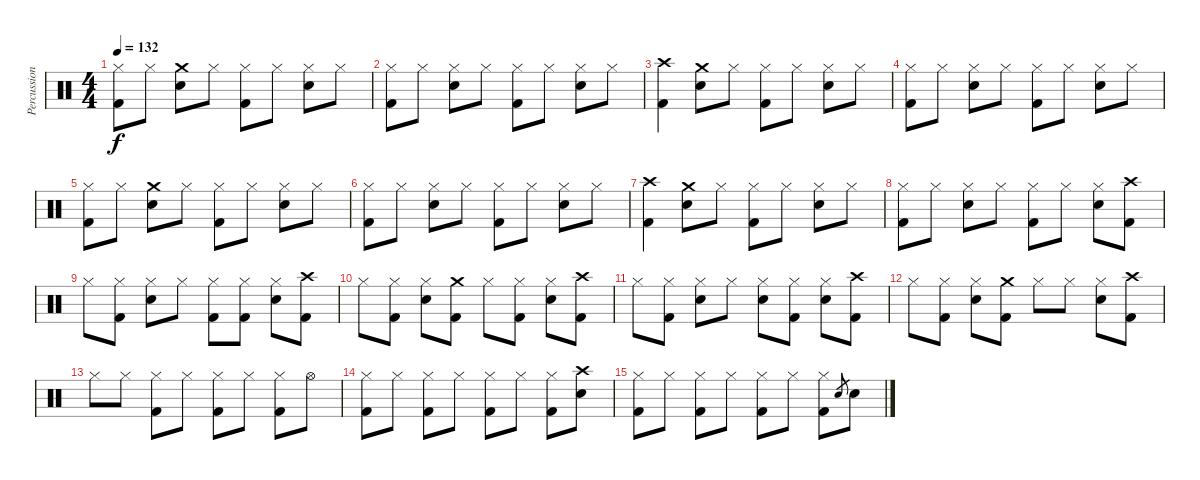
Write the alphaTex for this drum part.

\track ("Percussion" "Percussion") {instrument percussion}
\staff {score}
\articulation defaults
\ts (4 4)
\tempo 132
\clef neutral
\ks c
("Hi-Hat (closed)" "Kick (hit) 2").8{dy f} "Hi-Hat (closed)".8 ("Crash medium (hit)" "Snare (hit) 2").8 "Hi-Hat (closed)".8 ("Hi-Hat (closed)" "Kick (hit) 2").8 "Hi-Hat (closed)".8 ("Hi-Hat (closed)" "Snare (hit) 2").8 "Hi-Hat (closed)".8 |
("Hi-Hat (closed)" "Kick (hit) 2").8 "Hi-Hat (closed)".8 ("Hi-Hat (closed)" "Snare (hit) 2").8 "Hi-Hat (closed)".8 ("Hi-Hat (closed)" "Kick (hit) 2").8 "Hi-Hat (closed)".8 ("Hi-Hat (closed)" "Snare (hit) 2").8 "Hi-Hat (closed)".8 |
("Crash high (hit)" "Kick (hit) 2").4 ("Crash medium (hit)" "Snare (hit) 2").8 "Hi-Hat (closed)".8 ("Hi-Hat (closed)" "Kick (hit) 2").8 "Hi-Hat (closed)".8 ("Hi-Hat (closed)" "Snare (hit) 2").8 "Hi-Hat (closed)".8 |
("Hi-Hat (closed)" "Kick (hit) 2").8 "Hi-Hat (closed)".8 ("Hi-Hat (closed)" "Snare (hit) 2").8 "Hi-Hat (closed)".8 ("Hi-Hat (closed)" "Kick (hit) 2").8 "Hi-Hat (closed)".8 ("Hi-Hat (closed)" "Snare (hit) 2").8 "Hi-Hat (closed)".8 |
("Hi-Hat (closed)" "Kick (hit) 2").8 "Hi-Hat (closed)".8 ("Crash medium (hit)" "Snare (hit) 2").8 "Hi-Hat (closed)".8 ("Hi-Hat (closed)" "Kick (hit) 2").8 "Hi-Hat (closed)".8 ("Hi-Hat (closed)" "Snare (hit) 2").8 "Hi-Hat (closed)".8 |
("Hi-Hat (closed)" "Kick (hit) 2").8 "Hi-Hat (closed)".8 ("Hi-Hat (closed)" "Snare (hit) 2").8 "Hi-Hat (closed)".8 ("Hi-Hat (closed)" "Kick (hit) 2").8 "Hi-Hat (closed)".8 ("Hi-Hat (closed)" "Snare (hit) 2").8 "Hi-Hat (closed)".8 |
("Crash high (hit)" "Kick (hit) 2").4 ("Crash medium (hit)" "Snare (hit) 2").8 "Hi-Hat (closed)".8 ("Hi-Hat (closed)" "Kick (hit) 2").8 "Hi-Hat (closed)".8 ("Hi-Hat (closed)" "Snare (hit) 2").8 "Hi-Hat (closed)".8 |
("Hi-Hat (closed)" "Kick (hit) 2").8 "Hi-Hat (closed)".8 ("Hi-Hat (closed)" "Snare (hit) 2").8 "Hi-Hat (closed)".8 ("Hi-Hat (closed)" "Kick (hit) 2").8 "Hi-Hat (closed)".8 ("Hi-Hat (closed)" "Snare (hit) 2").8 ("Crash high (hit)" "Kick (hit) 2").8 |
"Hi-Hat (closed)".8 ("Hi-Hat (closed)" "Kick (hit) 2").8 ("Hi-Hat (closed)" "Snare (hit) 2").8 "Hi-Hat (closed)".8 ("Hi-Hat (closed)" "Kick (hit) 2").8 ("Hi-Hat (closed)" "Kick (hit) 2").8 ("Hi-Hat (closed)" "Snare (hit) 2").8 ("Crash high (hit)" "Kick (hit) 2").8 |
"Hi-Hat (closed)".8 ("Hi-Hat (closed)" "Kick (hit) 2").8 ("Hi-Hat (closed)" "Snare (hit) 2").8 ("Crash medium (hit)" "Kick (hit) 2").8 "Hi-Hat (closed)".8 ("Hi-Hat (closed)" "Kick (hit) 2").8 ("Hi-Hat (closed)" "Snare (hit) 2").8 ("Crash high (hit)" "Kick (hit) 2").8 |
"Hi-Hat (closed)".8 ("Hi-Hat (closed)" "Kick (hit) 2").8 ("Hi-Hat (closed)" "Snare (hit) 2").8 "Hi-Hat (closed)".8 ("Hi-Hat (closed)" "Snare (hit) 2").8 ("Hi-Hat (closed)" "Kick (hit) 2").8 ("Hi-Hat (closed)" "Snare (hit) 2").8 ("Crash high (hit)" "Kick (hit) 2").8 |
"Hi-Hat (closed)".8 ("Hi-Hat (closed)" "Kick (hit) 2").8 ("Hi-Hat (closed)" "Snare (hit) 2").8 ("Crash medium (hit)" "Kick (hit) 2").8 "Hi-Hat (closed)".8 "Hi-Hat (closed)".8 ("Hi-Hat (closed)" "Snare (hit) 2").8 ("Crash high (hit)" "Kick (hit) 2").8 |
"Hi-Hat (closed)".8 "Hi-Hat (closed)".8 ("Hi-Hat (closed)" "Kick (hit) 2").8 "Hi-Hat (closed)".8 ("Hi-Hat (closed)" "Kick (hit) 2").8 "Hi-Hat (closed)".8 ("Hi-Hat (closed)" "Kick (hit) 2").8 "Hi-Hat (open)".8 |
("Hi-Hat (closed)" "Kick (hit) 2").8 "Hi-Hat (closed)".8 ("Hi-Hat (closed)" "Kick (hit) 2").8 "Hi-Hat (closed)".8 ("Hi-Hat (closed)" "Kick (hit) 2").8 "Hi-Hat (closed)".8 ("Hi-Hat (closed)" "Kick (hit) 2").8 ("Crash high (hit)" "Snare (hit) 2").8 |
("Hi-Hat (closed)" "Kick (hit) 2").8 "Hi-Hat (closed)".8 ("Hi-Hat (closed)" "Kick (hit) 2").8 "Hi-Hat (closed)".8 ("Hi-Hat (closed)" "Kick (hit) 2").8 "Hi-Hat (closed)".8 ("Hi-Hat (closed)" "Kick (hit) 2").8 "Snare (hit) 2".8{gr} "Snare (hit) 2".8
